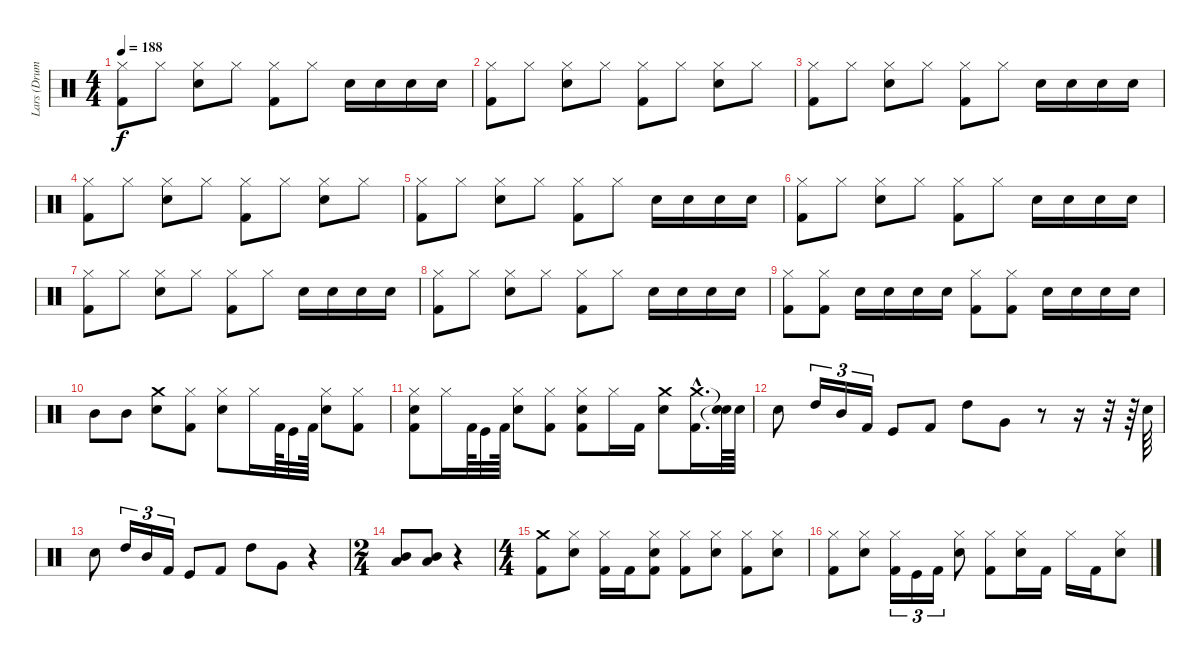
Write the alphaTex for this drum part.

\track ("Lars (Drums)" "Lars (Drum") {instrument percussion}
\staff {score}
\articulation defaults
\ts (4 4)
\tempo 188
\clef neutral
\ks c
("Hi-Hat (closed)" "Kick (hit) 2").8{dy f} "Hi-Hat (closed)".8 ("Snare (hit) 2" "Hi-Hat (closed)").8 "Hi-Hat (closed)".8 ("Hi-Hat (closed)" "Kick (hit) 2").8 "Hi-Hat (closed)".8 "Snare (hit) 2".16 "Snare (hit) 2".16 "Snare (hit) 2".16 "Snare (hit) 2".16 |
("Hi-Hat (closed)" "Kick (hit) 2").8 "Hi-Hat (closed)".8 ("Snare (hit) 2" "Hi-Hat (closed)").8 "Hi-Hat (closed)".8 ("Hi-Hat (closed)" "Kick (hit) 2").8 "Hi-Hat (closed)".8 ("Snare (hit) 2" "Hi-Hat (closed)").8 "Hi-Hat (closed)".8 |
("Hi-Hat (closed)" "Kick (hit) 2").8 "Hi-Hat (closed)".8 ("Snare (hit) 2" "Hi-Hat (closed)").8 "Hi-Hat (closed)".8 ("Hi-Hat (closed)" "Kick (hit) 2").8 "Hi-Hat (closed)".8 "Snare (hit) 2".16 "Snare (hit) 2".16 "Snare (hit) 2".16 "Snare (hit) 2".16 |
("Hi-Hat (closed)" "Kick (hit) 2").8 "Hi-Hat (closed)".8 ("Snare (hit) 2" "Hi-Hat (closed)").8 "Hi-Hat (closed)".8 ("Hi-Hat (closed)" "Kick (hit) 2").8 "Hi-Hat (closed)".8 ("Snare (hit) 2" "Hi-Hat (closed)").8 "Hi-Hat (closed)".8 |
("Hi-Hat (closed)" "Kick (hit) 2").8 "Hi-Hat (closed)".8 ("Snare (hit) 2" "Hi-Hat (closed)").8 "Hi-Hat (closed)".8 ("Hi-Hat (closed)" "Kick (hit) 2").8 "Hi-Hat (closed)".8 "Snare (hit) 2".16 "Snare (hit) 2".16 "Snare (hit) 2".16 "Snare (hit) 2".16 |
("Hi-Hat (closed)" "Kick (hit) 2").8 "Hi-Hat (closed)".8 ("Snare (hit) 2" "Hi-Hat (closed)").8 "Hi-Hat (closed)".8 ("Hi-Hat (closed)" "Kick (hit) 2").8 "Hi-Hat (closed)".8 "Snare (hit) 2".16 "Snare (hit) 2".16 "Snare (hit) 2".16 "Snare (hit) 2".16 |
("Hi-Hat (closed)" "Kick (hit) 2").8 "Hi-Hat (closed)".8 ("Snare (hit) 2" "Hi-Hat (closed)").8 "Hi-Hat (closed)".8 ("Hi-Hat (closed)" "Kick (hit) 2").8 "Hi-Hat (closed)".8 "Snare (hit) 2".16 "Snare (hit) 2".16 "Snare (hit) 2".16 "Snare (hit) 2".16 |
("Hi-Hat (closed)" "Kick (hit) 2").8 "Hi-Hat (closed)".8 ("Snare (hit) 2" "Hi-Hat (closed)").8 "Hi-Hat (closed)".8 ("Hi-Hat (closed)" "Kick (hit) 2").8 "Hi-Hat (closed)".8 "Snare (hit) 2".16 "Snare (hit) 2".16 "Snare (hit) 2".16 "Snare (hit) 2".16 |
("Kick (hit) 2" "Hi-Hat (closed)").8 ("Kick (hit) 2" "Hi-Hat (closed)").8 "Snare (hit) 2".16 "Snare (hit) 2".16 "Snare (hit) 2".16 "Snare (hit) 2".16 ("Kick (hit) 2" "Hi-Hat (closed)").8 ("Kick (hit) 2" "Hi-Hat (closed)").8 "Snare (hit) 2".16 "Snare (hit) 2".16 "Snare (hit) 2".16 "Snare (hit) 2".16 |
"Mid Tom (hit)".8 "Mid Tom (hit)".8 ("Crash medium (hit)" "Snare (hit) 2").8 ("Kick (hit) 2" "Hi-Hat (closed)").8 ("Snare (hit) 2" "Hi-Hat (closed)").8 "Hi-Hat (closed)".16 "Kick (hit) 2".64 "Kick (hit)".32 "Kick (hit) 2".64 ("Snare (hit) 2" "Hi-Hat (closed)").8 ("Kick (hit) 2" "Hi-Hat (closed)").8 |
("Hi-Hat (closed)" "Snare (hit) 2" "Kick (hit) 2").8 "Hi-Hat (closed)".16 "Kick (hit) 2".64 "Kick (hit)".32 "Kick (hit) 2".64 ("Snare (hit) 2" "Hi-Hat (closed)").8 ("Hi-Hat (closed)" "Kick (hit) 2").8 ("Snare (hit) 2" "Hi-Hat (closed)" "Kick (hit) 2").8 "Hi-Hat (closed)".16 "Kick (hit) 2".16 ("Crash medium (hit)" "Snare (hit) 2").8 ("Crash medium (hit)"{hac} "Kick (hit) 2"{hac}).16{d} ("Snare (hit)"{t} "Snare (hit)"{t}).64 "Snare (hit) 2".64 |
"Snare (hit) 2".8 "High Tom (hit)".16{tu (3 2)} "Mid Tom (hit)".16{tu (3 2)} "Kick (hit) 2".16{tu (3 2)} "Kick (hit)".8 "Kick (hit) 2".8 "High Tom (hit)".8 "Very Low Tom (hit)".8 r.8 r.16 r.32 r.64 "Snare (hit) 2".64 |
"Snare (hit) 2".8 "High Tom (hit)".16{tu (3 2)} "Mid Tom (hit)".16{tu (3 2)} "Kick (hit) 2".16{tu (3 2)} "Kick (hit)".8 "Kick (hit) 2".8 "High Tom (hit)".8 "Very Low Tom (hit)".8 r.4 |
\ts (2 4)
("Mid Tom (hit)" "Low Tom (hit)").8 ("Mid Tom (hit)" "Low Tom (hit)").8 r.4 |
\ts (4 4)
("Kick (hit) 2" "Crash medium (hit)").8 ("Hi-Hat (closed)" "Snare (hit) 2").8 ("Kick (hit) 2" "Hi-Hat (closed)").16 "Kick (hit) 2".16 ("Kick (hit) 2" "Snare (hit) 2" "Hi-Hat (closed)").8 ("Kick (hit) 2" "Hi-Hat (closed)").8 ("Snare (hit) 2" "Hi-Hat (closed)").8 ("Kick (hit) 2" "Hi-Hat (closed)").8 ("Snare (hit) 2" "Hi-Hat (closed)").8 |
("Kick (hit) 2" "Hi-Hat (closed)").8 ("Snare (hit) 2" "Hi-Hat (closed)").8 ("Kick (hit) 2" "Hi-Hat (closed)").16{tu (3 2)} "Kick (hit)".16{tu (3 2)} "Kick (hit) 2".16{tu (3 2)} ("Snare (hit) 2" "Hi-Hat (closed)").8 ("Kick (hit) 2" "Hi-Hat (closed)").8 ("Snare (hit) 2" "Hi-Hat (closed)").16 "Kick (hit) 2".16 "Hi-Hat (closed)".16 "Kick (hit) 2".16 ("Snare (hit) 2" "Hi-Hat (closed)").8
